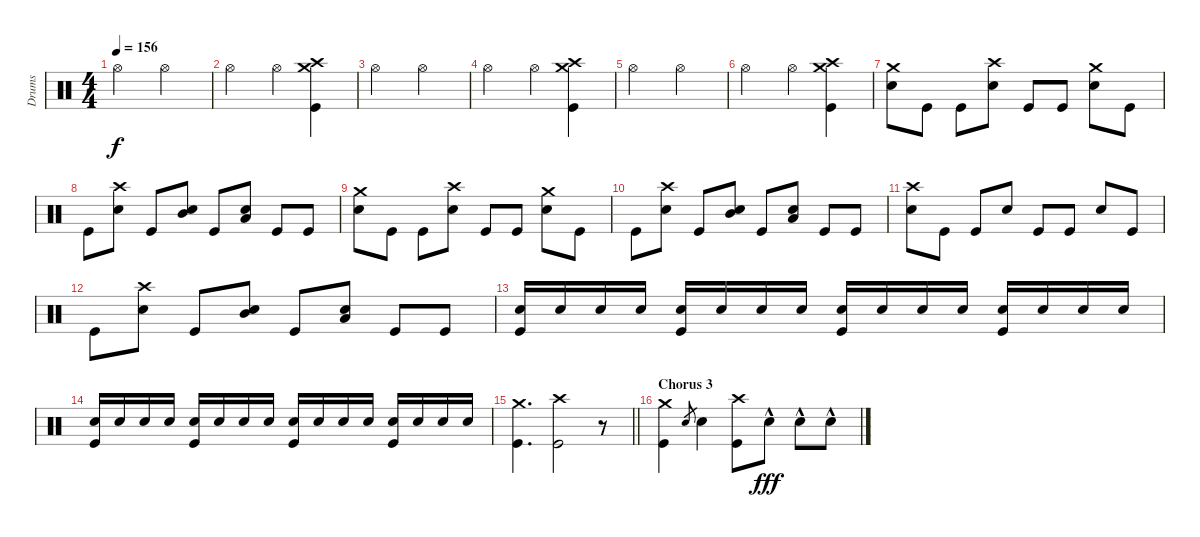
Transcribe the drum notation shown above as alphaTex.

\track ("Drums" "Drums") {instrument percussion}
\staff {score}
\articulation defaults
\ts (4 4)
\tempo 156
\clef neutral
\ks c "Hi-Hat (open)".2{dy f} "Hi-Hat (open)".2
|
"Hi-Hat (open)".2 "Hi-Hat (open)".4 ("Crash high (hit)" "Crash medium (hit)" "Kick (hit)").4 |
"Hi-Hat (open)".2 "Hi-Hat (open)".2 |
"Hi-Hat (open)".2 "Hi-Hat (open)".4 ("Crash high (hit)" "Crash medium (hit)" "Kick (hit)").4 |
"Hi-Hat (open)".2 "Hi-Hat (open)".2 |
"Hi-Hat (open)".2 "Hi-Hat (open)".4 ("Crash high (hit)" "Crash medium (hit)" "Kick (hit)").4 |
("Crash medium (hit)" "Snare (hit) 2").8 "Kick (hit)".8 "Kick (hit)".8 ("Crash high (hit)" "Snare (hit) 2").8 "Kick (hit)".8 "Kick (hit)".8 ("Crash medium (hit)" "Snare (hit) 2").8 "Kick (hit)".8 |
"Kick (hit)".8 ("Crash high (hit)" "Snare (hit) 2").8 "Kick (hit)".8 ("Mid Tom (hit)" "Snare (hit) 2").8 "Kick (hit)".8 ("Low Tom (hit)" "Snare (hit) 2").8 "Kick (hit)".8 "Kick (hit)".8 |
("Crash medium (hit)" "Snare (hit) 2").8 "Kick (hit)".8 "Kick (hit)".8 ("Crash high (hit)" "Snare (hit) 2").8 "Kick (hit)".8 "Kick (hit)".8 ("Crash medium (hit)" "Snare (hit) 2").8 "Kick (hit)".8 |
"Kick (hit)".8 ("Crash high (hit)" "Snare (hit) 2").8 "Kick (hit)".8 ("Mid Tom (hit)" "Snare (hit) 2").8 "Kick (hit)".8 ("Low Tom (hit)" "Snare (hit) 2").8 "Kick (hit)".8 "Kick (hit)".8 |
("Crash high (hit)" "Snare (hit) 2").8 "Kick (hit)".8 "Kick (hit)".8 "Snare (hit) 2".8 "Kick (hit)".8 "Kick (hit)".8 "Snare (hit) 2".8 "Kick (hit)".8 |
"Kick (hit)".8 ("Crash high (hit)" "Snare (hit) 2").8 "Kick (hit)".8 ("Mid Tom (hit)" "Snare (hit) 2").8 "Kick (hit)".8 ("Low Tom (hit)" "Snare (hit) 2").8 "Kick (hit)".8 "Kick (hit)".8 |
("Snare (hit) 2" "Kick (hit)").16{volume 10} "Snare (hit) 2".16 "Snare (hit) 2".16 "Snare (hit) 2".16 ("Snare (hit) 2" "Kick (hit)").16 "Snare (hit) 2".16 "Snare (hit) 2".16 "Snare (hit) 2".16 ("Snare (hit) 2" "Kick (hit)").16{volume 13} "Snare (hit) 2".16 "Snare (hit) 2".16 "Snare (hit) 2".16 ("Snare (hit) 2" "Kick (hit)").16 "Snare (hit) 2".16 "Snare (hit) 2".16 "Snare (hit) 2".16 |
("Snare (hit) 2" "Kick (hit)").16{volume 16} "Snare (hit) 2".16 "Snare (hit) 2".16 "Snare (hit) 2".16 ("Snare (hit) 2" "Kick (hit)").16 "Snare (hit) 2".16 "Snare (hit) 2".16 "Snare (hit) 2".16 ("Snare (hit) 2" "Kick (hit)").16 "Snare (hit) 2".16 "Snare (hit) 2".16 "Snare (hit) 2".16 ("Snare (hit) 2" "Kick (hit)").16 "Snare (hit) 2".16 "Snare (hit) 2".16 "Snare (hit) 2".16 |
\barLineRight lightlight
("Crash medium (hit)" "Kick (hit)").4{d} ("Crash high (hit)" "Kick (hit)").2 r.8 |
\section ("" "Chorus 3")
("Crash medium (hit)" "Kick (hit)").4 "Snare (hit) 2".8{gr} "Snare (hit) 2".4 ("Crash high (hit)" "Kick (hit)").8 "Snare (hit) 2"{hac}.8{dy fff} "Snare (hit) 2"{hac}.8 "Snare (hit) 2"{hac}.8
